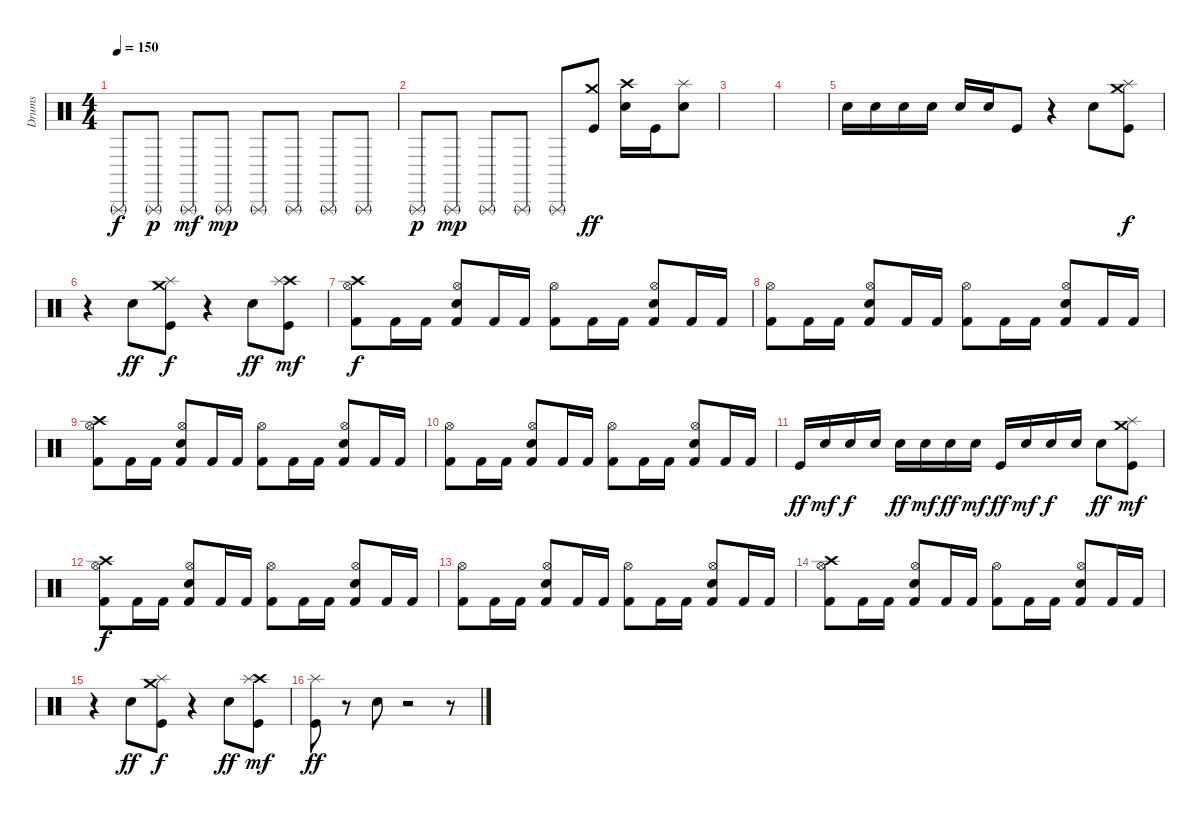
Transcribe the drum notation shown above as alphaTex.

\track ("Drums" "Drums") {instrument percussion}
\staff {score}
\articulation defaults
\ts (4 4)
\tempo 150
\clef neutral
\ks c "Triangle (rnute)".8{dy f} "Triangle (rnute)".8{dy p} "Triangle (rnute)".8{dy mf} "Triangle (rnute)".8{dy mp} "Triangle (rnute)".8 "Triangle (rnute)".8 "Triangle (rnute)".8 "Triangle (rnute)".8
|
"Triangle (rnute)".8{dy p} "Triangle (rnute)".8{dy mp} "Triangle (rnute)".8 "Triangle (rnute)".8 "Triangle (rnute)".8 ("Kick (hit)" "Crash medium (hit)").8{dy ff} ("Snare (hit) 2" "Crash high (hit)").16 "Kick (hit)".16 ("Snare (hit) 2" "Splash (hit)").8 |
|
|
"Snare (hit) 2".16 "Snare (hit) 2".16 "Snare (hit) 2".16 "Snare (hit) 2".16 "Snare (hit) 2".16 "Snare (hit) 2".16 "Kick (hit)".8 r.4 "Snare (hit) 2".8 ("Kick (hit)" "Splash (hit)" "Crash medium (hit)").8{dy f} |
r.4 "Snare (hit) 2".8{dy ff} ("Kick (hit)" "Splash (hit)" "Crash medium (hit)").8{dy f} r.4 "Snare (hit) 2".8{dy ff} ("Kick (hit)" "Crash high (hit)" "Splash (hit)").8{dy mf} |
("Crash high (hit)" "Hi-Hat (open)" "Kick (hit) 2").8{dy f} "Kick (hit) 2".16 "Kick (hit) 2".16 ("Hi-Hat (open)" "Snare (hit) 2" "Kick (hit) 2").8 "Kick (hit) 2".16 "Kick (hit) 2".16 ("Hi-Hat (open)" "Kick (hit) 2").8 "Kick (hit) 2".16 "Kick (hit) 2".16 ("Hi-Hat (open)" "Snare (hit) 2" "Kick (hit) 2").8 "Kick (hit) 2".16 "Kick (hit) 2".16 |
("Hi-Hat (open)" "Kick (hit) 2").8 "Kick (hit) 2".16 "Kick (hit) 2".16 ("Hi-Hat (open)" "Snare (hit) 2" "Kick (hit) 2").8 "Kick (hit) 2".16 "Kick (hit) 2".16 ("Hi-Hat (open)" "Kick (hit) 2").8 "Kick (hit) 2".16 "Kick (hit) 2".16 ("Hi-Hat (open)" "Snare (hit) 2" "Kick (hit) 2").8 "Kick (hit) 2".16 "Kick (hit) 2".16 |
("Crash high (hit)" "Hi-Hat (open)" "Kick (hit) 2").8 "Kick (hit) 2".16 "Kick (hit) 2".16 ("Hi-Hat (open)" "Snare (hit) 2" "Kick (hit) 2").8 "Kick (hit) 2".16 "Kick (hit) 2".16 ("Hi-Hat (open)" "Kick (hit) 2").8 "Kick (hit) 2".16 "Kick (hit) 2".16 ("Hi-Hat (open)" "Snare (hit) 2" "Kick (hit) 2").8 "Kick (hit) 2".16 "Kick (hit) 2".16 |
("Hi-Hat (open)" "Kick (hit) 2").8 "Kick (hit) 2".16 "Kick (hit) 2".16 ("Hi-Hat (open)" "Snare (hit) 2" "Kick (hit) 2").8 "Kick (hit) 2".16 "Kick (hit) 2".16 ("Hi-Hat (open)" "Kick (hit) 2").8 "Kick (hit) 2".16 "Kick (hit) 2".16 ("Hi-Hat (open)" "Snare (hit) 2" "Kick (hit) 2").8 "Kick (hit) 2".16 "Kick (hit) 2".16 |
"Kick (hit)".16{dy ff} "Snare (hit) 2".16{dy mf} "Snare (hit) 2".16{dy f} "Snare (hit) 2".16 "Snare (hit) 2".16{dy ff} "Snare (hit) 2".16{dy mf} "Snare (hit) 2".16{dy ff} "Snare (hit) 2".16{dy mf} "Kick (hit)".16{dy ff} "Snare (hit) 2".16{dy mf} "Snare (hit) 2".16{dy f} "Snare (hit) 2".16 "Snare (hit) 2".8{dy ff} ("Kick (hit)" "Splash (hit)" "Crash medium (hit)").8{dy mf} |
("Crash high (hit)" "Hi-Hat (open)" "Kick (hit) 2").8{dy f} "Kick (hit) 2".16 "Kick (hit) 2".16 ("Hi-Hat (open)" "Snare (hit) 2" "Kick (hit) 2").8 "Kick (hit) 2".16 "Kick (hit) 2".16 ("Hi-Hat (open)" "Kick (hit) 2").8 "Kick (hit) 2".16 "Kick (hit) 2".16 ("Hi-Hat (open)" "Snare (hit) 2" "Kick (hit) 2").8 "Kick (hit) 2".16 "Kick (hit) 2".16 |
("Hi-Hat (open)" "Kick (hit) 2").8 "Kick (hit) 2".16 "Kick (hit) 2".16 ("Hi-Hat (open)" "Snare (hit) 2" "Kick (hit) 2").8 "Kick (hit) 2".16 "Kick (hit) 2".16 ("Hi-Hat (open)" "Kick (hit) 2").8 "Kick (hit) 2".16 "Kick (hit) 2".16 ("Hi-Hat (open)" "Snare (hit) 2" "Kick (hit) 2").8 "Kick (hit) 2".16 "Kick (hit) 2".16 |
("Crash high (hit)" "Hi-Hat (open)" "Kick (hit) 2").8 "Kick (hit) 2".16 "Kick (hit) 2".16 ("Hi-Hat (open)" "Snare (hit) 2" "Kick (hit) 2").8 "Kick (hit) 2".16 "Kick (hit) 2".16 ("Hi-Hat (open)" "Kick (hit) 2").8 "Kick (hit) 2".16 "Kick (hit) 2".16 ("Hi-Hat (open)" "Snare (hit) 2" "Kick (hit) 2").8 "Kick (hit) 2".16 "Kick (hit) 2".16 |
r.4 "Snare (hit) 2".8{dy ff} ("Kick (hit)" "Splash (hit)" "Crash medium (hit)").8{dy f} r.4 "Snare (hit) 2".8{dy ff} ("Kick (hit)" "Crash high (hit)" "Splash (hit)").8{dy mf} |
("Kick (hit)" "Splash (hit)").8{dy ff} r.8 "Snare (hit) 2".8 r.2 r.8
